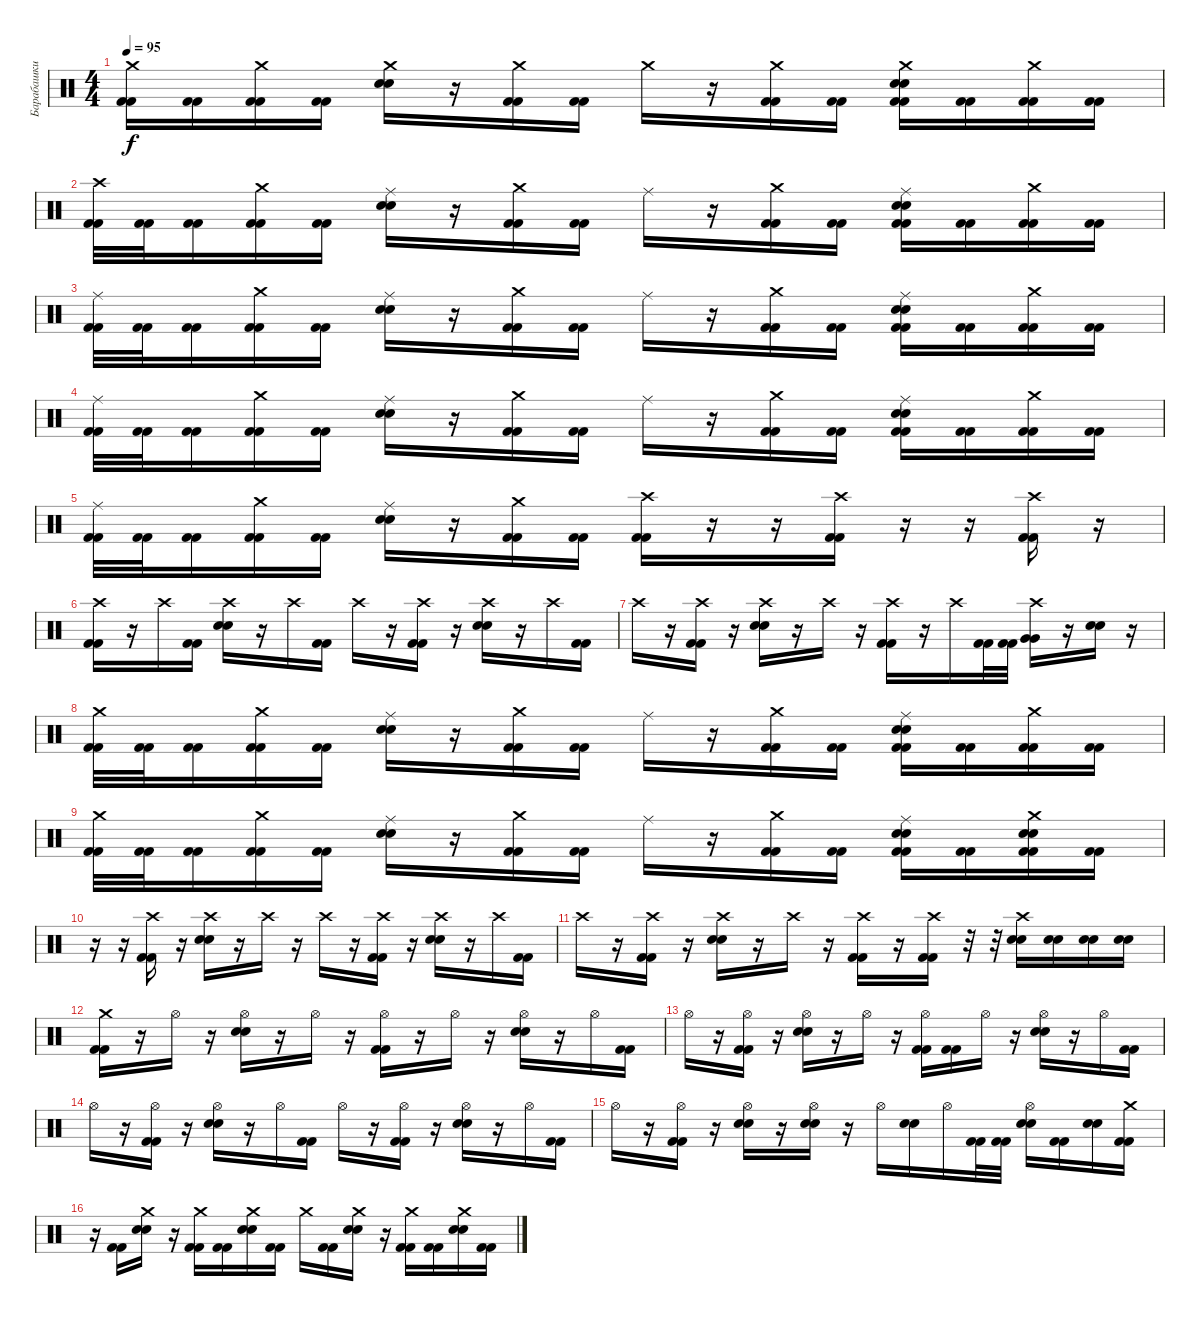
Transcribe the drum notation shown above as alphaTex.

\track ("Барабашки" "Барабашки") {instrument percussion}
\staff {score}
\articulation defaults
\ts (4 4)
\tempo 95
\clef neutral
\ks c
("Crash medium (hit)" "Kick (hit) 2" "Kick (hit) 2").16{dy f} ("Kick (hit) 2" "Kick (hit) 2").16 ("Crash medium (hit)" "Kick (hit) 2" "Kick (hit) 2").16 ("Kick (hit) 2" "Kick (hit) 2").16 ("Crash medium (hit)" "Electric Snare (hit)" "Electric Snare (hit)").16 r.16 ("Crash medium (hit)" "Kick (hit) 2" "Kick (hit) 2").16 ("Kick (hit) 2" "Kick (hit) 2").16 "Crash medium (hit)".16 r.16 ("Crash medium (hit)" "Kick (hit) 2" "Kick (hit) 2").16 ("Kick (hit) 2" "Kick (hit) 2").16 ("Crash medium (hit)" "Electric Snare (hit)" "Electric Snare (hit)" "Kick (hit) 2" "Kick (hit) 2").16 ("Kick (hit) 2" "Kick (hit) 2").16 ("Crash medium (hit)" "Kick (hit) 2" "Kick (hit) 2").16 ("Kick (hit) 2" "Kick (hit) 2").16 |
("Crash high (hit)" "Kick (hit) 2" "Kick (hit) 2").32 ("Kick (hit) 2" "Kick (hit) 2").32 ("Kick (hit) 2" "Kick (hit) 2").16 ("Crash medium (hit)" "Kick (hit) 2" "Kick (hit) 2").16 ("Kick (hit) 2" "Kick (hit) 2").16 ("Ride (middle)" "Electric Snare (hit)" "Electric Snare (hit)").16 r.16 ("Crash medium (hit)" "Kick (hit) 2" "Kick (hit) 2").16 ("Kick (hit) 2" "Kick (hit) 2").16 "Ride (middle)".16 r.16 ("Crash medium (hit)" "Kick (hit) 2" "Kick (hit) 2").16 ("Kick (hit) 2" "Kick (hit) 2").16 ("Ride (middle)" "Electric Snare (hit)" "Electric Snare (hit)" "Kick (hit) 2" "Kick (hit) 2").16 ("Kick (hit) 2" "Kick (hit) 2").16 ("Crash medium (hit)" "Kick (hit) 2" "Kick (hit) 2").16 ("Kick (hit) 2" "Kick (hit) 2").16 |
("Ride (middle)" "Kick (hit) 2" "Kick (hit) 2").32 ("Kick (hit) 2" "Kick (hit) 2").32 ("Kick (hit) 2" "Kick (hit) 2").16 ("Crash medium (hit)" "Kick (hit) 2" "Kick (hit) 2").16 ("Kick (hit) 2" "Kick (hit) 2").16 ("Ride (middle)" "Electric Snare (hit)" "Electric Snare (hit)").16 r.16 ("Crash medium (hit)" "Kick (hit) 2" "Kick (hit) 2").16 ("Kick (hit) 2" "Kick (hit) 2").16 "Ride (middle)".16 r.16 ("Crash medium (hit)" "Kick (hit) 2" "Kick (hit) 2").16 ("Kick (hit) 2" "Kick (hit) 2").16 ("Ride (middle)" "Electric Snare (hit)" "Electric Snare (hit)" "Kick (hit) 2" "Kick (hit) 2").16 ("Kick (hit) 2" "Kick (hit) 2").16 ("Crash medium (hit)" "Kick (hit) 2" "Kick (hit) 2").16 ("Kick (hit) 2" "Kick (hit) 2").16 |
("Ride (middle)" "Kick (hit) 2" "Kick (hit) 2").32 ("Kick (hit) 2" "Kick (hit) 2").32 ("Kick (hit) 2" "Kick (hit) 2").16 ("Crash medium (hit)" "Kick (hit) 2" "Kick (hit) 2").16 ("Kick (hit) 2" "Kick (hit) 2").16 ("Ride (middle)" "Electric Snare (hit)" "Electric Snare (hit)").16 r.16 ("Crash medium (hit)" "Kick (hit) 2" "Kick (hit) 2").16 ("Kick (hit) 2" "Kick (hit) 2").16 "Ride (middle)".16 r.16 ("Crash medium (hit)" "Kick (hit) 2" "Kick (hit) 2").16 ("Kick (hit) 2" "Kick (hit) 2").16 ("Ride (middle)" "Electric Snare (hit)" "Electric Snare (hit)" "Kick (hit) 2" "Kick (hit) 2").16 ("Kick (hit) 2" "Kick (hit) 2").16 ("Crash medium (hit)" "Kick (hit) 2" "Kick (hit) 2").16 ("Kick (hit) 2" "Kick (hit) 2").16 |
("Ride (middle)" "Kick (hit) 2" "Kick (hit) 2").32 ("Kick (hit) 2" "Kick (hit) 2").32 ("Kick (hit) 2" "Kick (hit) 2").16 ("Crash medium (hit)" "Kick (hit) 2" "Kick (hit) 2").16 ("Kick (hit) 2" "Kick (hit) 2").16 ("Ride (middle)" "Electric Snare (hit)" "Electric Snare (hit)").16 r.16 ("Crash medium (hit)" "Kick (hit) 2" "Kick (hit) 2").16 ("Kick (hit) 2" "Kick (hit) 2").16 ("Crash high (hit)" "Kick (hit) 2" "Kick (hit) 2").16 r.16 r.16 ("Crash high (hit)" "Kick (hit) 2" "Kick (hit) 2").16 r.16 r.16 ("Crash high (hit)" "Kick (hit) 2" "Kick (hit) 2").16 r.16 |
("Crash high (hit)" "Kick (hit) 2" "Kick (hit) 2").16 r.16 "Crash high (hit)".16 ("Kick (hit) 2" "Kick (hit) 2").16 ("Crash high (hit)" "Electric Snare (hit)" "Electric Snare (hit)").16 r.16 "Crash high (hit)".16 ("Kick (hit) 2" "Kick (hit) 2").16 "Crash high (hit)".16 r.16 ("Crash high (hit)" "Kick (hit) 2" "Kick (hit) 2").16 r.16 ("Crash high (hit)" "Electric Snare (hit)" "Electric Snare (hit)").16 r.16 "Crash high (hit)".16 ("Kick (hit) 2" "Kick (hit) 2").16 |
"Crash high (hit)".16 r.16 ("Crash high (hit)" "Kick (hit) 2" "Kick (hit) 2").16 r.16 ("Crash high (hit)" "Electric Snare (hit)" "Electric Snare (hit)").16 r.16 "Crash high (hit)".16 r.16 ("Crash high (hit)" "Kick (hit) 2" "Kick (hit) 2").16 r.16 "Crash high (hit)".16 ("Kick (hit) 2" "Kick (hit) 2").32 ("Kick (hit) 2" "Kick (hit) 2").32 ("Crash high (hit)" "Very Low Tom (hit)" "Very Low Tom (hit)").16 r.16 ("Electric Snare (hit)" "Electric Snare (hit)").16 r.16 |
("Crash medium (hit)" "Kick (hit) 2" "Kick (hit) 2").32 ("Kick (hit) 2" "Kick (hit) 2").32 ("Kick (hit) 2" "Kick (hit) 2").16 ("Crash medium (hit)" "Kick (hit) 2" "Kick (hit) 2").16 ("Kick (hit) 2" "Kick (hit) 2").16 ("Ride (middle)" "Electric Snare (hit)" "Electric Snare (hit)").16 r.16 ("Crash medium (hit)" "Kick (hit) 2" "Kick (hit) 2").16 ("Kick (hit) 2" "Kick (hit) 2").16 "Ride (middle)".16 r.16 ("Crash medium (hit)" "Kick (hit) 2" "Kick (hit) 2").16 ("Kick (hit) 2" "Kick (hit) 2").16 ("Ride (middle)" "Electric Snare (hit)" "Electric Snare (hit)" "Kick (hit) 2" "Kick (hit) 2").16 ("Kick (hit) 2" "Kick (hit) 2").16 ("Crash medium (hit)" "Kick (hit) 2" "Kick (hit) 2").16 ("Kick (hit) 2" "Kick (hit) 2").16 |
("Crash medium (hit)" "Kick (hit) 2" "Kick (hit) 2").32 ("Kick (hit) 2" "Kick (hit) 2").32 ("Kick (hit) 2" "Kick (hit) 2").16 ("Crash medium (hit)" "Kick (hit) 2" "Kick (hit) 2").16 ("Kick (hit) 2" "Kick (hit) 2").16 ("Ride (middle)" "Electric Snare (hit)" "Electric Snare (hit)").16 r.16 ("Crash medium (hit)" "Kick (hit) 2" "Kick (hit) 2").16 ("Kick (hit) 2" "Kick (hit) 2").16 "Ride (middle)".16 r.16 ("Crash medium (hit)" "Kick (hit) 2" "Kick (hit) 2").16 ("Kick (hit) 2" "Kick (hit) 2").16 ("Ride (middle)" "Electric Snare (hit)" "Electric Snare (hit)" "Kick (hit) 2" "Kick (hit) 2").16 ("Kick (hit) 2" "Kick (hit) 2").16 ("Crash medium (hit)" "Electric Snare (hit)" "Electric Snare (hit)" "Kick (hit) 2" "Kick (hit) 2").16 ("Kick (hit) 2" "Kick (hit) 2").16 |
r.16 r.16 ("Crash high (hit)" "Kick (hit) 2" "Kick (hit) 2").16 r.16 ("Crash high (hit)" "Electric Snare (hit)" "Electric Snare (hit)").16 r.16 "Crash high (hit)".16 r.16 "Crash high (hit)".16 r.16 ("Crash high (hit)" "Kick (hit) 2" "Kick (hit) 2").16 r.16 ("Crash high (hit)" "Electric Snare (hit)" "Electric Snare (hit)").16 r.16 "Crash high (hit)".16 ("Kick (hit) 2" "Kick (hit) 2").16 |
"Crash high (hit)".16 r.16 ("Crash high (hit)" "Kick (hit) 2" "Kick (hit) 2").16 r.16 ("Crash high (hit)" "Electric Snare (hit)" "Electric Snare (hit)").16 r.16 "Crash high (hit)".16 r.16 ("Crash high (hit)" "Kick (hit) 2" "Kick (hit) 2").16 r.16 ("Crash high (hit)" "Kick (hit) 2" "Kick (hit) 2").16 r.32 r.32 ("Crash high (hit)" "Electric Snare (hit)" "Electric Snare (hit)").16 ("Electric Snare (hit)" "Electric Snare (hit)").16 ("Electric Snare (hit)" "Electric Snare (hit)").16 ("Electric Snare (hit)" "Electric Snare (hit)").16 |
("Crash medium (hit)" "Kick (hit) 2" "Kick (hit) 2").16 r.16 "Hi-Hat (open)".16 r.16 ("Hi-Hat (open)" "Electric Snare (hit)" "Electric Snare (hit)").16 r.16 "Hi-Hat (open)".16 r.16 ("Hi-Hat (open)" "Kick (hit) 2" "Kick (hit) 2").16 r.16 "Hi-Hat (open)".16 r.16 ("Hi-Hat (open)" "Electric Snare (hit)" "Electric Snare (hit)").16 r.16 "Hi-Hat (open)".16 ("Kick (hit) 2" "Kick (hit) 2").16 |
"Hi-Hat (open)".16 r.16 ("Hi-Hat (open)" "Kick (hit) 2" "Kick (hit) 2").16 r.16 ("Hi-Hat (open)" "Electric Snare (hit)" "Electric Snare (hit)").16 r.16 "Hi-Hat (open)".16 r.16 ("Hi-Hat (open)" "Kick (hit) 2" "Kick (hit) 2").16 ("Kick (hit) 2" "Kick (hit) 2").16 "Hi-Hat (open)".16 r.16 ("Hi-Hat (open)" "Electric Snare (hit)" "Electric Snare (hit)").16 r.16 "Hi-Hat (open)".16 ("Kick (hit) 2" "Kick (hit) 2").16 |
"Hi-Hat (open)".16 r.16 ("Hi-Hat (open)" "Kick (hit) 2" "Kick (hit) 2").16 r.16 ("Hi-Hat (open)" "Electric Snare (hit)" "Electric Snare (hit)").16 r.16 "Hi-Hat (open)".16 ("Kick (hit) 2" "Kick (hit) 2").16 "Hi-Hat (open)".16 r.16 ("Hi-Hat (open)" "Kick (hit) 2" "Kick (hit) 2").16 r.16 ("Hi-Hat (open)" "Electric Snare (hit)" "Electric Snare (hit)").16 r.16 "Hi-Hat (open)".16 ("Kick (hit) 2" "Kick (hit) 2").16 |
"Hi-Hat (open)".16 r.16 ("Hi-Hat (open)" "Kick (hit) 2" "Kick (hit) 2").16 r.16 ("Hi-Hat (open)" "Electric Snare (hit)" "Electric Snare (hit)").16 r.16 ("Hi-Hat (open)" "Electric Snare (hit)" "Electric Snare (hit)").16 r.16 "Hi-Hat (open)".16 ("Electric Snare (hit)" "Electric Snare (hit)").16 "Hi-Hat (open)".16 ("Kick (hit) 2" "Kick (hit) 2").32 ("Kick (hit) 2" "Kick (hit) 2").32 ("Hi-Hat (open)" "Electric Snare (hit)" "Electric Snare (hit)").16 ("Kick (hit) 2" "Kick (hit) 2").16 ("Electric Snare (hit)" "Electric Snare (hit)").16 ("Crash medium (hit)" "Kick (hit) 2" "Kick (hit) 2").16 |
r.16 ("Kick (hit) 2" "Kick (hit) 2").16 ("Crash medium (hit)" "Electric Snare (hit)" "Electric Snare (hit)").16 r.16 ("Crash medium (hit)" "Kick (hit) 2" "Kick (hit) 2").16 ("Kick (hit) 2" "Kick (hit) 2").16 ("Crash medium (hit)" "Electric Snare (hit)" "Electric Snare (hit)").16 ("Kick (hit) 2" "Kick (hit) 2").16 "Crash medium (hit)".16 ("Kick (hit) 2" "Kick (hit) 2").16 ("Crash medium (hit)" "Electric Snare (hit)" "Electric Snare (hit)").16 r.16 ("Crash medium (hit)" "Kick (hit) 2" "Kick (hit) 2").16 ("Kick (hit) 2" "Kick (hit) 2").16 ("Crash medium (hit)" "Electric Snare (hit)" "Electric Snare (hit)").16 ("Kick (hit) 2" "Kick (hit) 2").16
